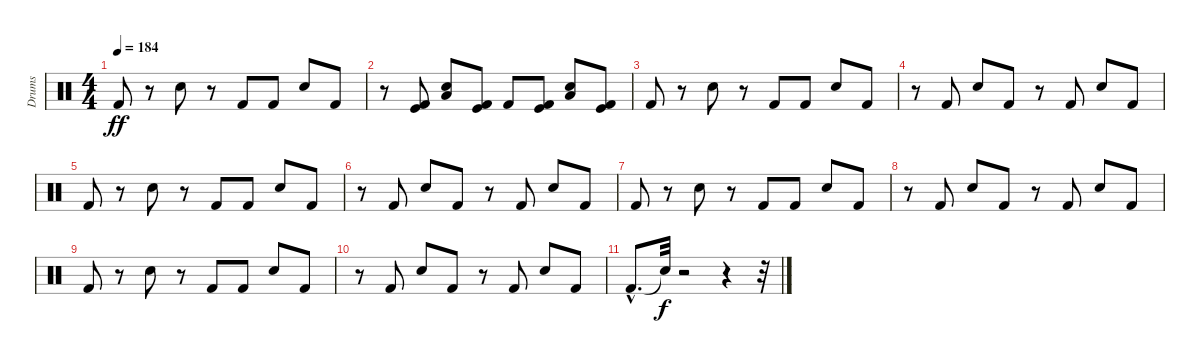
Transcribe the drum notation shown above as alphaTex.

\track ("Drums" "Drums") {instrument percussion}
\staff {score}
\articulation defaults
\ts (4 4)
\tempo 184
\clef neutral
\ks c "Kick (hit) 2".8{dy ff}
r.8 "Electric Snare (hit)".8 r.8 "Kick (hit) 2".8 "Kick (hit) 2".8 "Electric Snare (hit)".8 "Kick (hit) 2".8 |
r.8 ("Kick (hit)" "Kick (hit) 2").8 ("Electric Snare (hit)" "Low Floor Tom (hit)").8 ("Kick (hit)" "Kick (hit) 2").8 "Kick (hit) 2".8 ("Kick (hit)" "Kick (hit) 2").8 ("Electric Snare (hit)" "Low Floor Tom (hit)").8 ("Kick (hit)" "Kick (hit) 2").8 |
"Kick (hit) 2".8 r.8 "Electric Snare (hit)".8 r.8 "Kick (hit) 2".8 "Kick (hit) 2".8 "Electric Snare (hit)".8 "Kick (hit) 2".8 |
r.8 "Kick (hit) 2".8 "Electric Snare (hit)".8 "Kick (hit) 2".8 r.8 "Kick (hit) 2".8 "Electric Snare (hit)".8 "Kick (hit) 2".8 |
"Kick (hit) 2".8 r.8 "Electric Snare (hit)".8 r.8 "Kick (hit) 2".8 "Kick (hit) 2".8 "Electric Snare (hit)".8 "Kick (hit) 2".8 |
r.8 "Kick (hit) 2".8 "Electric Snare (hit)".8 "Kick (hit) 2".8 r.8 "Kick (hit) 2".8 "Electric Snare (hit)".8 "Kick (hit) 2".8 |
"Kick (hit) 2".8 r.8 "Electric Snare (hit)".8 r.8 "Kick (hit) 2".8 "Kick (hit) 2".8 "Electric Snare (hit)".8 "Kick (hit) 2".8 |
r.8 "Kick (hit) 2".8 "Electric Snare (hit)".8 "Kick (hit) 2".8 r.8 "Kick (hit) 2".8 "Electric Snare (hit)".8 "Kick (hit) 2".8 |
"Kick (hit) 2".8 r.8 "Electric Snare (hit)".8 r.8 "Kick (hit) 2".8 "Kick (hit) 2".8 "Electric Snare (hit)".8 "Kick (hit) 2".8 |
r.8 "Kick (hit) 2".8 "Electric Snare (hit)".8 "Kick (hit) 2".8 r.8 "Kick (hit) 2".8 "Electric Snare (hit)".8 "Kick (hit) 2".8 |
"Kick (hit) 2"{hac}.8{d} "Snare (hit)"{t}.32{dy f} r.2 r.4 r.32
